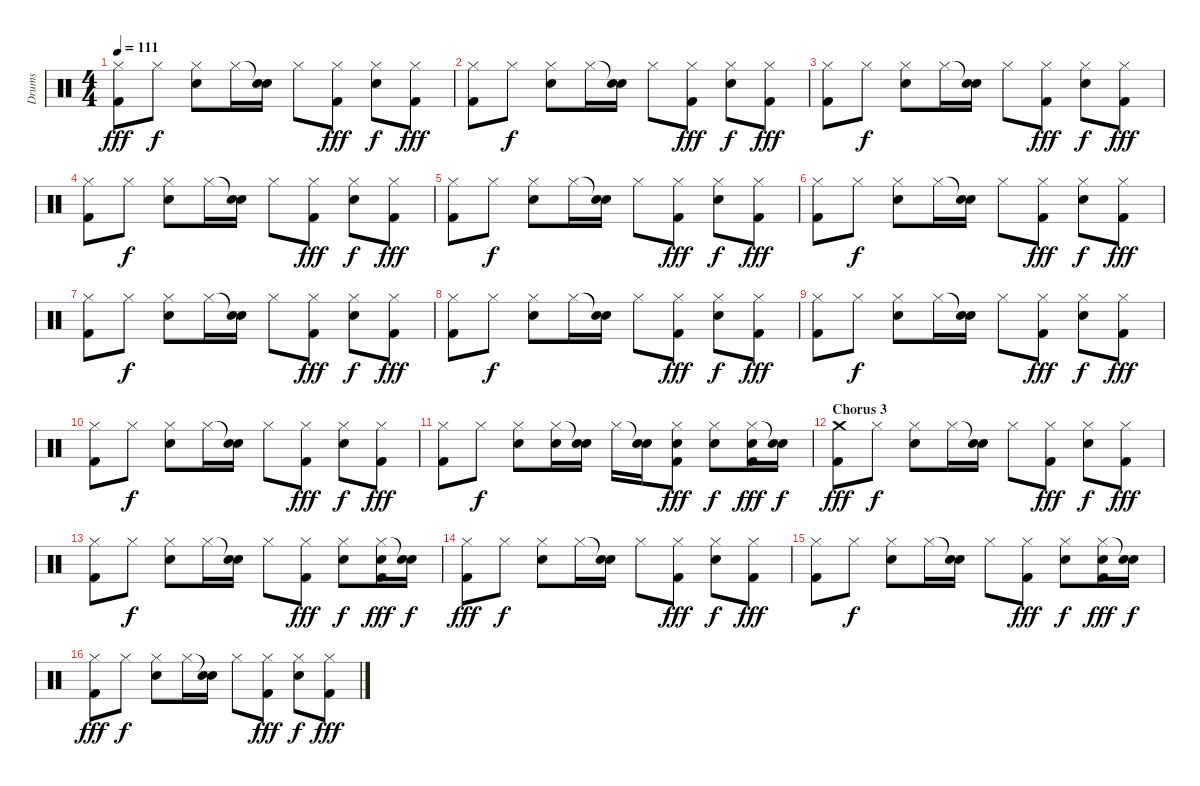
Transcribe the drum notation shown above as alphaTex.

\track ("Drums" "Drums") {instrument percussion}
\staff {score}
\articulation defaults
\ts (4 4)
\tempo 111
\clef neutral
\ks c
("Hi-Hat (closed)" "Kick (hit) 2").8{dy fff} "Hi-Hat (closed)".8{dy f} ("Hi-Hat (closed)" "Snare (hit) 2").8 "Hi-Hat (closed)".16 ("Snare (hit)"{t} "Snare (hit) 2").16 "Hi-Hat (closed)".8 ("Hi-Hat (closed)" "Kick (hit) 2").8{dy fff} ("Hi-Hat (closed)" "Snare (hit) 2").8{dy f} ("Hi-Hat (closed)" "Kick (hit) 2").8{dy fff} |
("Hi-Hat (closed)" "Kick (hit) 2").8 "Hi-Hat (closed)".8{dy f} ("Hi-Hat (closed)" "Snare (hit) 2").8 "Hi-Hat (closed)".16 ("Snare (hit)"{t} "Snare (hit) 2").16 "Hi-Hat (closed)".8 ("Hi-Hat (closed)" "Kick (hit) 2").8{dy fff} ("Hi-Hat (closed)" "Snare (hit) 2").8{dy f} ("Hi-Hat (closed)" "Kick (hit) 2").8{dy fff} |
("Hi-Hat (closed)" "Kick (hit) 2").8 "Hi-Hat (closed)".8{dy f} ("Hi-Hat (closed)" "Snare (hit) 2").8 "Hi-Hat (closed)".16 ("Snare (hit)"{t} "Snare (hit) 2").16 "Hi-Hat (closed)".8 ("Hi-Hat (closed)" "Kick (hit) 2").8{dy fff} ("Hi-Hat (closed)" "Snare (hit) 2").8{dy f} ("Hi-Hat (closed)" "Kick (hit) 2").8{dy fff} |
("Hi-Hat (closed)" "Kick (hit) 2").8 "Hi-Hat (closed)".8{dy f} ("Hi-Hat (closed)" "Snare (hit) 2").8 "Hi-Hat (closed)".16 ("Snare (hit)"{t} "Snare (hit) 2").16 "Hi-Hat (closed)".8 ("Hi-Hat (closed)" "Kick (hit) 2").8{dy fff} ("Hi-Hat (closed)" "Snare (hit) 2").8{dy f} ("Hi-Hat (closed)" "Kick (hit) 2").8{dy fff} |
("Hi-Hat (closed)" "Kick (hit) 2").8 "Hi-Hat (closed)".8{dy f} ("Hi-Hat (closed)" "Snare (hit) 2").8 "Hi-Hat (closed)".16 ("Snare (hit)"{t} "Snare (hit) 2").16 "Hi-Hat (closed)".8 ("Hi-Hat (closed)" "Kick (hit) 2").8{dy fff} ("Hi-Hat (closed)" "Snare (hit) 2").8{dy f} ("Hi-Hat (closed)" "Kick (hit) 2").8{dy fff} |
("Hi-Hat (closed)" "Kick (hit) 2").8 "Hi-Hat (closed)".8{dy f} ("Hi-Hat (closed)" "Snare (hit) 2").8 "Hi-Hat (closed)".16 ("Snare (hit)"{t} "Snare (hit) 2").16 "Hi-Hat (closed)".8 ("Hi-Hat (closed)" "Kick (hit) 2").8{dy fff} ("Hi-Hat (closed)" "Snare (hit) 2").8{dy f} ("Hi-Hat (closed)" "Kick (hit) 2").8{dy fff} |
("Hi-Hat (closed)" "Kick (hit) 2").8 "Hi-Hat (closed)".8{dy f} ("Hi-Hat (closed)" "Snare (hit) 2").8 "Hi-Hat (closed)".16 ("Snare (hit)"{t} "Snare (hit) 2").16 "Hi-Hat (closed)".8 ("Hi-Hat (closed)" "Kick (hit) 2").8{dy fff} ("Hi-Hat (closed)" "Snare (hit) 2").8{dy f} ("Hi-Hat (closed)" "Kick (hit) 2").8{dy fff} |
("Hi-Hat (closed)" "Kick (hit) 2").8 "Hi-Hat (closed)".8{dy f} ("Hi-Hat (closed)" "Snare (hit) 2").8 "Hi-Hat (closed)".16 ("Snare (hit)"{t} "Snare (hit) 2").16 "Hi-Hat (closed)".8 ("Hi-Hat (closed)" "Kick (hit) 2").8{dy fff} ("Hi-Hat (closed)" "Snare (hit) 2").8{dy f} ("Hi-Hat (closed)" "Kick (hit) 2").8{dy fff} |
("Hi-Hat (closed)" "Kick (hit) 2").8 "Hi-Hat (closed)".8{dy f} ("Hi-Hat (closed)" "Snare (hit) 2").8 "Hi-Hat (closed)".16 ("Snare (hit)"{t} "Snare (hit) 2").16 "Hi-Hat (closed)".8 ("Hi-Hat (closed)" "Kick (hit) 2").8{dy fff} ("Hi-Hat (closed)" "Snare (hit) 2").8{dy f} ("Hi-Hat (closed)" "Kick (hit) 2").8{dy fff} |
("Hi-Hat (closed)" "Kick (hit) 2").8 "Hi-Hat (closed)".8{dy f} ("Hi-Hat (closed)" "Snare (hit) 2").8 "Hi-Hat (closed)".16 ("Snare (hit)"{t} "Snare (hit) 2").16 "Hi-Hat (closed)".8 ("Hi-Hat (closed)" "Kick (hit) 2").8{dy fff} ("Hi-Hat (closed)" "Snare (hit) 2").8{dy f} ("Hi-Hat (closed)" "Kick (hit) 2").8{dy fff} |
("Hi-Hat (closed)" "Kick (hit) 2").8 "Hi-Hat (closed)".8{dy f} ("Hi-Hat (closed)" "Snare (hit) 2").8 ("Hi-Hat (closed)" "Snare (hit) 2").16 ("Snare (hit)"{t} "Snare (hit) 2").16 "Hi-Hat (closed)".16 ("Snare (hit)"{t} "Snare (hit) 2").16 ("Hi-Hat (closed)" "Snare (hit) 2" "Kick (hit) 2").8{dy fff} ("Hi-Hat (closed)" "Snare (hit) 2").8{dy f} ("Hi-Hat (closed)" "Snare (hit) 2" "Kick (hit) 2").16{dy fff} ("Snare (hit)"{t} "Snare (hit) 2").16{dy f} |
\section ("" "Chorus 3")
("Crash medium (hit)" "Kick (hit) 2").8{dy fff} "Hi-Hat (closed)".8{dy f} ("Hi-Hat (closed)" "Snare (hit) 2").8 "Hi-Hat (closed)".16 ("Snare (hit)"{t} "Snare (hit) 2").16 "Hi-Hat (closed)".8 ("Hi-Hat (closed)" "Kick (hit) 2").8{dy fff} ("Hi-Hat (closed)" "Snare (hit) 2").8{dy f} ("Hi-Hat (closed)" "Kick (hit) 2").8{dy fff} |
("Hi-Hat (closed)" "Kick (hit) 2").8 "Hi-Hat (closed)".8{dy f} ("Hi-Hat (closed)" "Snare (hit) 2").8 "Hi-Hat (closed)".16 ("Snare (hit)"{t} "Snare (hit) 2").16 "Hi-Hat (closed)".8 ("Hi-Hat (closed)" "Kick (hit) 2").8{dy fff} ("Hi-Hat (closed)" "Snare (hit) 2").8{dy f} ("Hi-Hat (closed)" "Snare (hit) 2" "Kick (hit) 2").16{dy fff} ("Snare (hit)"{t} "Snare (hit) 2").16{dy f} |
("Hi-Hat (closed)" "Kick (hit) 2").8{dy fff} "Hi-Hat (closed)".8{dy f} ("Hi-Hat (closed)" "Snare (hit) 2").8 "Hi-Hat (closed)".16 ("Snare (hit)"{t} "Snare (hit) 2").16 "Hi-Hat (closed)".8 ("Hi-Hat (closed)" "Kick (hit) 2").8{dy fff} ("Hi-Hat (closed)" "Snare (hit) 2").8{dy f} ("Hi-Hat (closed)" "Kick (hit) 2").8{dy fff} |
("Hi-Hat (closed)" "Kick (hit) 2").8 "Hi-Hat (closed)".8{dy f} ("Hi-Hat (closed)" "Snare (hit) 2").8 "Hi-Hat (closed)".16 ("Snare (hit)"{t} "Snare (hit) 2").16 "Hi-Hat (closed)".8 ("Hi-Hat (closed)" "Kick (hit) 2").8{dy fff} ("Hi-Hat (closed)" "Snare (hit) 2").8{dy f} ("Hi-Hat (closed)" "Snare (hit) 2" "Kick (hit) 2").16{dy fff} ("Snare (hit)"{t} "Snare (hit) 2").16{dy f} |
("Hi-Hat (closed)" "Kick (hit) 2").8{dy fff} "Hi-Hat (closed)".8{dy f} ("Hi-Hat (closed)" "Snare (hit) 2").8 "Hi-Hat (closed)".16 ("Snare (hit)"{t} "Snare (hit) 2").16 "Hi-Hat (closed)".8 ("Hi-Hat (closed)" "Kick (hit) 2").8{dy fff} ("Hi-Hat (closed)" "Snare (hit) 2").8{dy f} ("Hi-Hat (closed)" "Kick (hit) 2").8{dy fff}
